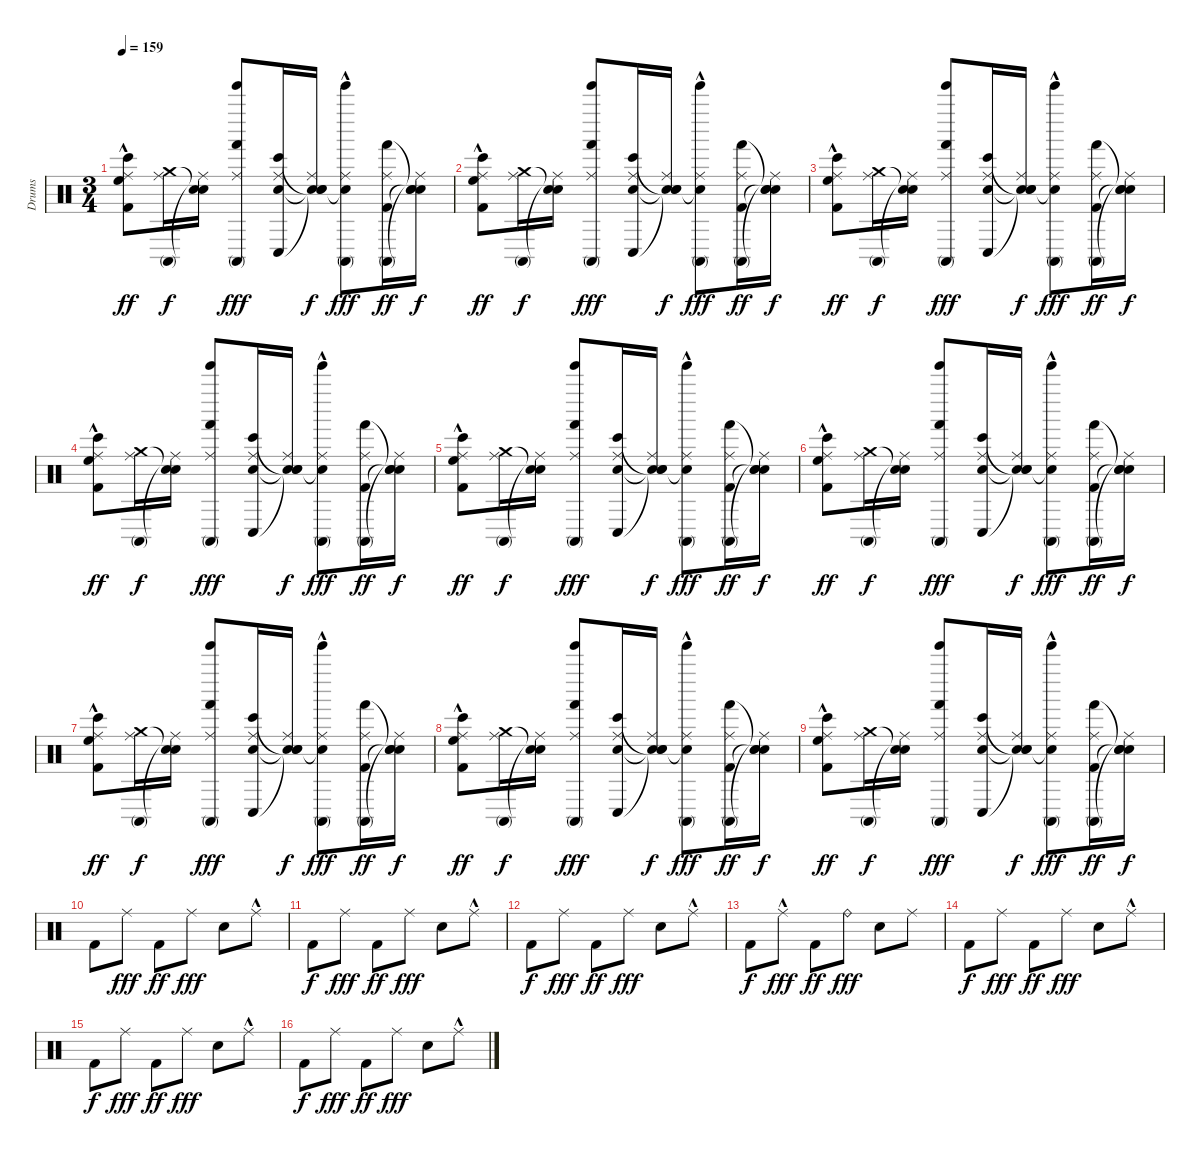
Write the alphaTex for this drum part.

\track ("Drums" "Drums") {instrument percussion}
\staff {score}
\articulation defaults
\ts (3 4)
\tempo 159
\clef neutral
\ks c
("Kick (hit) 2" "Bongo High (hit)"{hac} "Ride (middle)" "High Floor Tom (hit)").8{dy ff} ("Conga high (mute)" "Ride (middle)" "Crash medium (hit)").16{dy f} ("Snare (hit)"{t} "Ride (middle)" "Snare (hit)"{t}).16 ("Tinkle Bell (hit)" "Hand (hit)" "Ride (middle)" "Conga high (mute)").8{dy fff} ("Snare (hit) 2" "Bongo High (hit)" "Ride (middle)" "Conga low (hit)").16 ("Snare (hit)"{t} "Snare (hit)"{t} "Ride (middle)" "Snare (hit)"{t}).16{dy f} ("Tinkle Bell (hit)" "Conga high (mute)"{hac} "Ride (middle)" "Snare (hit)"{t}).8{dy fff} ("Kick (hit) 2" "Hand (hit)" "Ride (middle)" "Conga high (mute)").16{dy ff} ("Snare (hit)"{t} "Snare (hit)"{t} "Ride (middle)" "Snare (hit)"{t}).16{dy f} |
("Kick (hit) 2" "Bongo High (hit)"{hac} "Ride (middle)" "High Floor Tom (hit)").8{dy ff} ("Conga high (mute)" "Ride (middle)" "Crash medium (hit)").16{dy f} ("Snare (hit)"{t} "Ride (middle)" "Snare (hit)"{t}).16 ("Tinkle Bell (hit)" "Hand (hit)" "Ride (middle)" "Conga high (mute)").8{dy fff} ("Snare (hit) 2" "Bongo High (hit)" "Ride (middle)" "Conga low (hit)").16 ("Snare (hit)"{t} "Snare (hit)"{t} "Ride (middle)" "Snare (hit)"{t}).16{dy f} ("Tinkle Bell (hit)" "Conga high (mute)"{hac} "Ride (middle)" "Snare (hit)"{t}).8{dy fff} ("Kick (hit) 2" "Hand (hit)" "Ride (middle)" "Conga high (mute)").16{dy ff} ("Snare (hit)"{t} "Snare (hit)"{t} "Ride (middle)" "Snare (hit)"{t}).16{dy f} |
("Kick (hit) 2" "Bongo High (hit)"{hac} "Ride (middle)" "High Floor Tom (hit)").8{dy ff} ("Conga high (mute)" "Ride (middle)" "Crash medium (hit)").16{dy f} ("Snare (hit)"{t} "Ride (middle)" "Snare (hit)"{t}).16 ("Tinkle Bell (hit)" "Hand (hit)" "Ride (middle)" "Conga high (mute)").8{dy fff} ("Snare (hit) 2" "Bongo High (hit)" "Ride (middle)" "Conga low (hit)").16 ("Snare (hit)"{t} "Snare (hit)"{t} "Ride (middle)" "Snare (hit)"{t}).16{dy f} ("Tinkle Bell (hit)" "Conga high (mute)"{hac} "Ride (middle)" "Snare (hit)"{t}).8{dy fff} ("Kick (hit) 2" "Hand (hit)" "Ride (middle)" "Conga high (mute)").16{dy ff} ("Snare (hit)"{t} "Snare (hit)"{t} "Ride (middle)" "Snare (hit)"{t}).16{dy f} |
("Kick (hit) 2" "Bongo High (hit)"{hac} "Ride (middle)" "High Floor Tom (hit)").8{dy ff} ("Conga high (mute)" "Ride (middle)" "Crash medium (hit)").16{dy f} ("Snare (hit)"{t} "Ride (middle)" "Snare (hit)"{t}).16 ("Tinkle Bell (hit)" "Hand (hit)" "Ride (middle)" "Conga high (mute)").8{dy fff} ("Snare (hit) 2" "Bongo High (hit)" "Ride (middle)" "Conga low (hit)").16 ("Snare (hit)"{t} "Snare (hit)"{t} "Ride (middle)" "Snare (hit)"{t}).16{dy f} ("Tinkle Bell (hit)" "Conga high (mute)"{hac} "Ride (middle)" "Snare (hit)"{t}).8{dy fff} ("Kick (hit) 2" "Hand (hit)" "Ride (middle)" "Conga high (mute)").16{dy ff} ("Snare (hit)"{t} "Snare (hit)"{t} "Ride (middle)" "Snare (hit)"{t}).16{dy f} |
("Kick (hit) 2" "Bongo High (hit)"{hac} "Ride (middle)" "High Floor Tom (hit)").8{dy ff} ("Conga high (mute)" "Ride (middle)" "Crash medium (hit)").16{dy f} ("Snare (hit)"{t} "Ride (middle)" "Snare (hit)"{t}).16 ("Tinkle Bell (hit)" "Hand (hit)" "Ride (middle)" "Conga high (mute)").8{dy fff} ("Snare (hit) 2" "Bongo High (hit)" "Ride (middle)" "Conga low (hit)").16 ("Snare (hit)"{t} "Snare (hit)"{t} "Ride (middle)" "Snare (hit)"{t}).16{dy f} ("Tinkle Bell (hit)" "Conga high (mute)"{hac} "Ride (middle)" "Snare (hit)"{t}).8{dy fff} ("Kick (hit) 2" "Hand (hit)" "Ride (middle)" "Conga high (mute)").16{dy ff} ("Snare (hit)"{t} "Snare (hit)"{t} "Ride (middle)" "Snare (hit)"{t}).16{dy f} |
("Kick (hit) 2" "Bongo High (hit)"{hac} "Ride (middle)" "High Floor Tom (hit)").8{dy ff} ("Conga high (mute)" "Ride (middle)" "Crash medium (hit)").16{dy f} ("Snare (hit)"{t} "Ride (middle)" "Snare (hit)"{t}).16 ("Tinkle Bell (hit)" "Hand (hit)" "Ride (middle)" "Conga high (mute)").8{dy fff} ("Snare (hit) 2" "Bongo High (hit)" "Ride (middle)" "Conga low (hit)").16 ("Snare (hit)"{t} "Snare (hit)"{t} "Ride (middle)" "Snare (hit)"{t}).16{dy f} ("Tinkle Bell (hit)" "Conga high (mute)"{hac} "Ride (middle)" "Snare (hit)"{t}).8{dy fff} ("Kick (hit) 2" "Hand (hit)" "Ride (middle)" "Conga high (mute)").16{dy ff} ("Snare (hit)"{t} "Snare (hit)"{t} "Ride (middle)" "Snare (hit)"{t}).16{dy f} |
("Kick (hit) 2" "Bongo High (hit)"{hac} "Ride (middle)" "High Floor Tom (hit)").8{dy ff} ("Conga high (mute)" "Ride (middle)" "Crash medium (hit)").16{dy f} ("Snare (hit)"{t} "Ride (middle)" "Snare (hit)"{t}).16 ("Tinkle Bell (hit)" "Hand (hit)" "Ride (middle)" "Conga high (mute)").8{dy fff} ("Snare (hit) 2" "Bongo High (hit)" "Ride (middle)" "Conga low (hit)").16 ("Snare (hit)"{t} "Snare (hit)"{t} "Ride (middle)" "Snare (hit)"{t}).16{dy f} ("Tinkle Bell (hit)" "Conga high (mute)"{hac} "Ride (middle)" "Snare (hit)"{t}).8{dy fff} ("Kick (hit) 2" "Hand (hit)" "Ride (middle)" "Conga high (mute)").16{dy ff} ("Snare (hit)"{t} "Snare (hit)"{t} "Ride (middle)" "Snare (hit)"{t}).16{dy f} |
("Kick (hit) 2" "Bongo High (hit)"{hac} "Ride (middle)" "High Floor Tom (hit)").8{dy ff} ("Conga high (mute)" "Ride (middle)" "Crash medium (hit)").16{dy f} ("Snare (hit)"{t} "Ride (middle)" "Snare (hit)"{t}).16 ("Tinkle Bell (hit)" "Hand (hit)" "Ride (middle)" "Conga high (mute)").8{dy fff} ("Snare (hit) 2" "Bongo High (hit)" "Ride (middle)" "Conga low (hit)").16 ("Snare (hit)"{t} "Snare (hit)"{t} "Ride (middle)" "Snare (hit)"{t}).16{dy f} ("Tinkle Bell (hit)" "Conga high (mute)"{hac} "Ride (middle)" "Snare (hit)"{t}).8{dy fff} ("Kick (hit) 2" "Hand (hit)" "Ride (middle)" "Conga high (mute)").16{dy ff} ("Snare (hit)"{t} "Snare (hit)"{t} "Ride (middle)" "Snare (hit)"{t}).16{dy f} |
("Kick (hit) 2" "Bongo High (hit)"{hac} "Ride (middle)" "High Floor Tom (hit)").8{dy ff} ("Conga high (mute)" "Ride (middle)" "Crash medium (hit)").16{dy f} ("Snare (hit)"{t} "Ride (middle)" "Snare (hit)"{t}).16 ("Tinkle Bell (hit)" "Hand (hit)" "Ride (middle)" "Conga high (mute)").8{dy fff} ("Snare (hit) 2" "Bongo High (hit)" "Ride (middle)" "Conga low (hit)").16 ("Snare (hit)"{t} "Snare (hit)"{t} "Ride (middle)" "Snare (hit)"{t}).16{dy f} ("Tinkle Bell (hit)" "Conga high (mute)"{hac} "Ride (middle)" "Snare (hit)"{t}).8{dy fff} ("Kick (hit) 2" "Hand (hit)" "Ride (middle)" "Conga high (mute)").16{dy ff} ("Snare (hit)"{t} "Snare (hit)"{t} "Ride (middle)" "Snare (hit)"{t}).16{dy f} |
"Kick (hit) 2".8 "Ride (middle)".8{dy fff} "Kick (hit) 2".8{dy ff} "Ride (middle)".8{dy fff} "Snare (hit) 2".8 "Ride (middle)"{hac}.8 |
"Kick (hit) 2".8{dy f} "Ride (middle)".8{dy fff} "Kick (hit) 2".8{dy ff} "Ride (middle)".8{dy fff} "Snare (hit) 2".8 "Ride (middle)"{hac}.8 |
"Kick (hit) 2".8{dy f} "Ride (middle)".8{dy fff} "Kick (hit) 2".8{dy ff} "Ride (middle)".8{dy fff} "Snare (hit) 2".8 "Ride (middle)"{hac}.8 |
"Kick (hit) 2".8{dy f} "Ride (middle)"{hac}.8{dy fff} "Kick (hit) 2".8{dy ff} "Ride (bell)".8{dy fff} "Snare (hit) 2".8 "Ride (middle)".8 |
"Kick (hit) 2".8{dy f} "Ride (middle)".8{dy fff} "Kick (hit) 2".8{dy ff} "Ride (middle)".8{dy fff} "Snare (hit) 2".8 "Ride (middle)"{hac}.8 |
"Kick (hit) 2".8{dy f} "Ride (middle)".8{dy fff} "Kick (hit) 2".8{dy ff} "Ride (middle)".8{dy fff} "Snare (hit) 2".8 "Ride (middle)"{hac}.8 |
"Kick (hit) 2".8{dy f} "Ride (middle)".8{dy fff} "Kick (hit) 2".8{dy ff} "Ride (middle)".8{dy fff} "Snare (hit) 2".8 "Ride (middle)"{hac}.8
